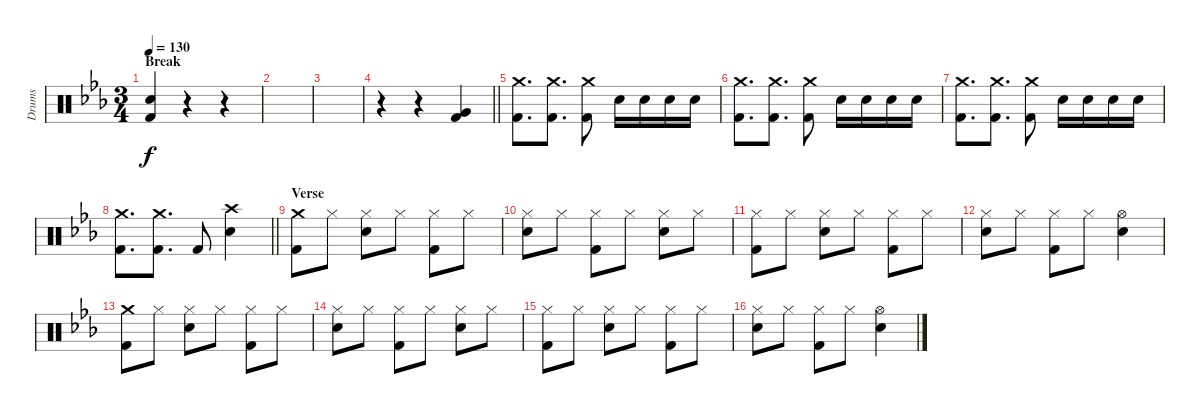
\track ("Drums" "Drums") {instrument percussion}
\staff {score}
\articulation defaults
\ts (3 4)
\section ("" "Break")
\tempo 130
\clef neutral
\ks eb
("Electric Snare (hit)" "Kick (hit) 2").4{dy f} r.4 r.4 |
|
|
\barLineRight lightlight
r.4 r.4 ("Kick (hit) 2" "Very Low Tom (hit)").4 |
("Crash medium (hit)" "Kick (hit) 2").8{d} ("Crash medium (hit)" "Kick (hit) 2").8{d} ("Crash medium (hit)" "Kick (hit) 2").8 "Electric Snare (hit)".16 "Electric Snare (hit)".16 "Electric Snare (hit)".16 "Electric Snare (hit)".16 |
("Crash medium (hit)" "Kick (hit) 2").8{d} ("Crash medium (hit)" "Kick (hit) 2").8{d} ("Crash medium (hit)" "Kick (hit) 2").8 "Electric Snare (hit)".16 "Electric Snare (hit)".16 "Electric Snare (hit)".16 "Electric Snare (hit)".16 |
("Crash medium (hit)" "Kick (hit) 2").8{d} ("Crash medium (hit)" "Kick (hit) 2").8{d} ("Crash medium (hit)" "Kick (hit) 2").8 "Electric Snare (hit)".16 "Electric Snare (hit)".16 "Electric Snare (hit)".16 "Electric Snare (hit)".16 |
\barLineRight lightlight
("Crash medium (hit)" "Kick (hit) 2").8{d} ("Crash medium (hit)" "Kick (hit) 2").8{d} "Kick (hit) 2".8 ("Crash high (hit)" "Electric Snare (hit)").4 |
\section ("" "Verse")
("Crash medium (hit)" "Kick (hit) 2").8 "Hi-Hat (closed)".8 ("Hi-Hat (closed)" "Electric Snare (hit)").8 "Hi-Hat (closed)".8 ("Hi-Hat (closed)" "Kick (hit) 2").8 "Hi-Hat (closed)".8 |
("Hi-Hat (closed)" "Electric Snare (hit)").8 "Hi-Hat (closed)".8 ("Hi-Hat (closed)" "Kick (hit) 2").8 "Hi-Hat (closed)".8 ("Hi-Hat (closed)" "Electric Snare (hit)").8 "Hi-Hat (closed)".8 |
("Hi-Hat (closed)" "Kick (hit) 2").8 "Hi-Hat (closed)".8 ("Hi-Hat (closed)" "Electric Snare (hit)").8 "Hi-Hat (closed)".8 ("Hi-Hat (closed)" "Kick (hit) 2").8 "Hi-Hat (closed)".8 |
("Hi-Hat (closed)" "Electric Snare (hit)").8 "Hi-Hat (closed)".8 ("Hi-Hat (closed)" "Kick (hit) 2").8 "Hi-Hat (closed)".8 ("Hi-Hat (open)" "Electric Snare (hit)").4 |
("Crash medium (hit)" "Kick (hit) 2").8 "Hi-Hat (closed)".8 ("Hi-Hat (closed)" "Electric Snare (hit)").8 "Hi-Hat (closed)".8 ("Hi-Hat (closed)" "Kick (hit) 2").8 "Hi-Hat (closed)".8 |
("Hi-Hat (closed)" "Electric Snare (hit)").8 "Hi-Hat (closed)".8 ("Hi-Hat (closed)" "Kick (hit) 2").8 "Hi-Hat (closed)".8 ("Hi-Hat (closed)" "Electric Snare (hit)").8 "Hi-Hat (closed)".8 |
("Hi-Hat (closed)" "Kick (hit) 2").8 "Hi-Hat (closed)".8 ("Hi-Hat (closed)" "Electric Snare (hit)").8 "Hi-Hat (closed)".8 ("Hi-Hat (closed)" "Kick (hit) 2").8 "Hi-Hat (closed)".8 |
("Hi-Hat (closed)" "Electric Snare (hit)").8 "Hi-Hat (closed)".8 ("Hi-Hat (closed)" "Kick (hit) 2").8 "Hi-Hat (closed)".8 ("Hi-Hat (open)" "Electric Snare (hit)").4
